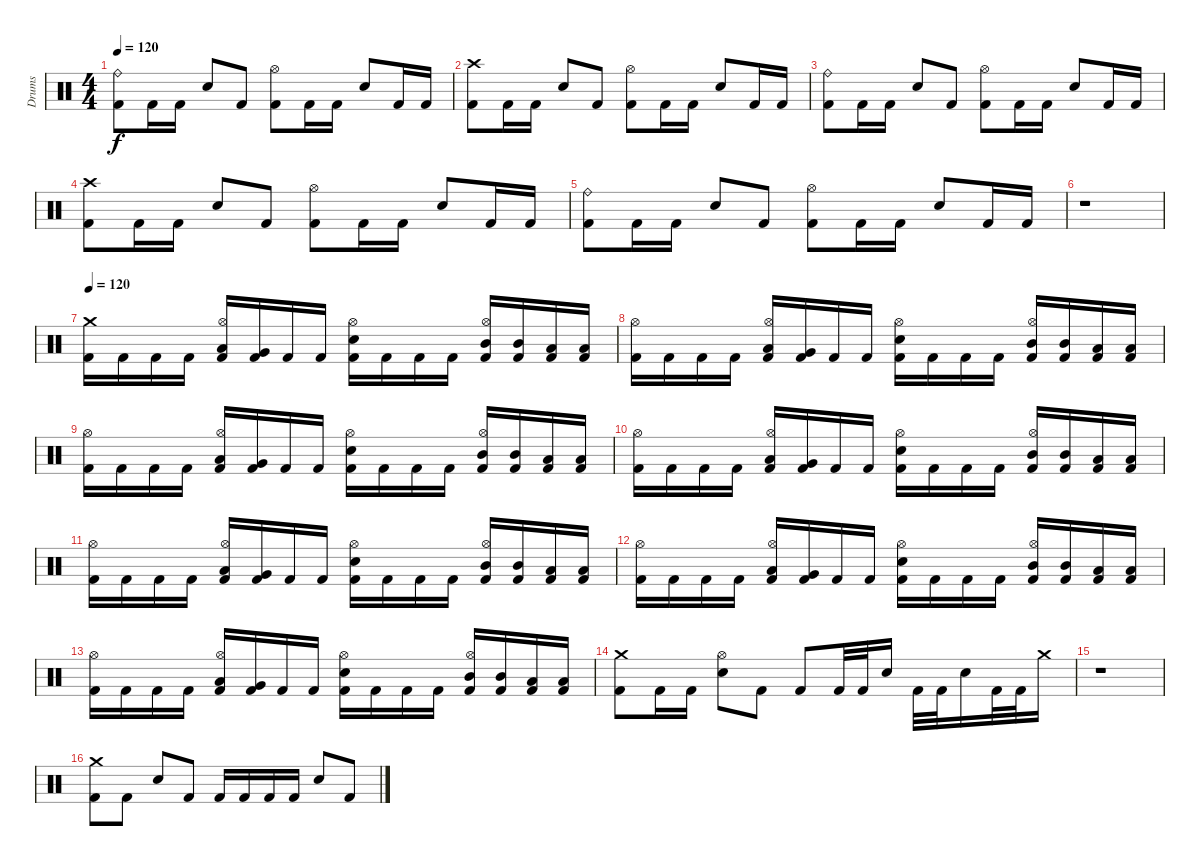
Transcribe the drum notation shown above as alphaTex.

\track ("Drums" "Drums") {instrument percussion}
\staff {score}
\articulation defaults
\ts (4 4)
\tempo 120
\clef neutral
\ks c
("Ride (bell)" "Kick (hit) 2").8{dy f} "Kick (hit) 2".16 "Kick (hit) 2".16 "Electric Snare (hit)".8 "Kick (hit) 2".8 ("Hi-Hat (open)" "Kick (hit) 2").8 "Kick (hit) 2".16 "Kick (hit) 2".16 "Electric Snare (hit)".8 "Kick (hit) 2".16 "Kick (hit) 2".16 |
("Crash high (hit)" "Kick (hit) 2").8 "Kick (hit) 2".16 "Kick (hit) 2".16 "Electric Snare (hit)".8 "Kick (hit) 2".8 ("Hi-Hat (open)" "Kick (hit) 2").8 "Kick (hit) 2".16 "Kick (hit) 2".16 "Electric Snare (hit)".8 "Kick (hit) 2".16 "Kick (hit) 2".16 |
("Ride (bell)" "Kick (hit) 2").8 "Kick (hit) 2".16 "Kick (hit) 2".16 "Electric Snare (hit)".8 "Kick (hit) 2".8 ("Hi-Hat (open)" "Kick (hit) 2").8 "Kick (hit) 2".16 "Kick (hit) 2".16 "Electric Snare (hit)".8 "Kick (hit) 2".16 "Kick (hit) 2".16 |
("Crash high (hit)" "Kick (hit) 2").8 "Kick (hit) 2".16 "Kick (hit) 2".16 "Electric Snare (hit)".8 "Kick (hit) 2".8 ("Hi-Hat (open)" "Kick (hit) 2").8 "Kick (hit) 2".16 "Kick (hit) 2".16 "Electric Snare (hit)".8 "Kick (hit) 2".16 "Kick (hit) 2".16 |
("Ride (bell)" "Kick (hit) 2").8 "Kick (hit) 2".16 "Kick (hit) 2".16 "Electric Snare (hit)".8 "Kick (hit) 2".8 ("Hi-Hat (open)" "Kick (hit) 2").8 "Kick (hit) 2".16 "Kick (hit) 2".16 "Electric Snare (hit)".8 "Kick (hit) 2".16 "Kick (hit) 2".16 |
r.1 |
\tempo 120
("Crash medium (hit)" "Kick (hit) 2").16 "Kick (hit) 2".16 "Kick (hit) 2".16 "Kick (hit) 2".16 ("Hi-Hat (open)" "Low Tom (hit)" "Kick (hit) 2").16 ("Very Low Tom (hit)" "Kick (hit) 2").16 "Kick (hit) 2".16 "Kick (hit) 2".16 ("Hi-Hat (open)" "Electric Snare (hit)" "Kick (hit) 2").16 "Kick (hit) 2".16 "Kick (hit) 2".16 "Kick (hit) 2".16 ("Hi-Hat (open)" "Mid Tom (hit)" "Kick (hit) 2").16 ("Mid Tom (hit)" "Kick (hit) 2").16 ("Low Tom (hit)" "Kick (hit) 2").16 ("Low Tom (hit)" "Kick (hit) 2").16 |
("Hi-Hat (open)" "Kick (hit) 2").16 "Kick (hit) 2".16 "Kick (hit) 2".16 "Kick (hit) 2".16 ("Hi-Hat (open)" "Low Tom (hit)" "Kick (hit) 2").16 ("Very Low Tom (hit)" "Kick (hit) 2").16 "Kick (hit) 2".16 "Kick (hit) 2".16 ("Hi-Hat (open)" "Electric Snare (hit)" "Kick (hit) 2").16 "Kick (hit) 2".16 "Kick (hit) 2".16 "Kick (hit) 2".16 ("Hi-Hat (open)" "Mid Tom (hit)" "Kick (hit) 2").16 ("Mid Tom (hit)" "Kick (hit) 2").16 ("Low Tom (hit)" "Kick (hit) 2").16 ("Low Tom (hit)" "Kick (hit) 2").16 |
("Hi-Hat (open)" "Kick (hit) 2").16 "Kick (hit) 2".16 "Kick (hit) 2".16 "Kick (hit) 2".16 ("Hi-Hat (open)" "Low Tom (hit)" "Kick (hit) 2").16 ("Very Low Tom (hit)" "Kick (hit) 2").16 "Kick (hit) 2".16 "Kick (hit) 2".16 ("Hi-Hat (open)" "Electric Snare (hit)" "Kick (hit) 2").16 "Kick (hit) 2".16 "Kick (hit) 2".16 "Kick (hit) 2".16 ("Hi-Hat (open)" "Mid Tom (hit)" "Kick (hit) 2").16 ("Mid Tom (hit)" "Kick (hit) 2").16 ("Low Tom (hit)" "Kick (hit) 2").16 ("Low Tom (hit)" "Kick (hit) 2").16 |
("Hi-Hat (open)" "Kick (hit) 2").16 "Kick (hit) 2".16 "Kick (hit) 2".16 "Kick (hit) 2".16 ("Hi-Hat (open)" "Low Tom (hit)" "Kick (hit) 2").16 ("Very Low Tom (hit)" "Kick (hit) 2").16 "Kick (hit) 2".16 "Kick (hit) 2".16 ("Hi-Hat (open)" "Electric Snare (hit)" "Kick (hit) 2").16 "Kick (hit) 2".16 "Kick (hit) 2".16 "Kick (hit) 2".16 ("Hi-Hat (open)" "Mid Tom (hit)" "Kick (hit) 2").16 ("Mid Tom (hit)" "Kick (hit) 2").16 ("Low Tom (hit)" "Kick (hit) 2").16 ("Low Tom (hit)" "Kick (hit) 2").16 |
("Hi-Hat (open)" "Kick (hit) 2").16 "Kick (hit) 2".16 "Kick (hit) 2".16 "Kick (hit) 2".16 ("Hi-Hat (open)" "Low Tom (hit)" "Kick (hit) 2").16 ("Very Low Tom (hit)" "Kick (hit) 2").16 "Kick (hit) 2".16 "Kick (hit) 2".16 ("Hi-Hat (open)" "Electric Snare (hit)" "Kick (hit) 2").16 "Kick (hit) 2".16 "Kick (hit) 2".16 "Kick (hit) 2".16 ("Hi-Hat (open)" "Mid Tom (hit)" "Kick (hit) 2").16 ("Mid Tom (hit)" "Kick (hit) 2").16 ("Low Tom (hit)" "Kick (hit) 2").16 ("Low Tom (hit)" "Kick (hit) 2").16 |
("Hi-Hat (open)" "Kick (hit) 2").16 "Kick (hit) 2".16 "Kick (hit) 2".16 "Kick (hit) 2".16 ("Hi-Hat (open)" "Low Tom (hit)" "Kick (hit) 2").16 ("Very Low Tom (hit)" "Kick (hit) 2").16 "Kick (hit) 2".16 "Kick (hit) 2".16 ("Hi-Hat (open)" "Electric Snare (hit)" "Kick (hit) 2").16 "Kick (hit) 2".16 "Kick (hit) 2".16 "Kick (hit) 2".16 ("Hi-Hat (open)" "Mid Tom (hit)" "Kick (hit) 2").16 ("Mid Tom (hit)" "Kick (hit) 2").16 ("Low Tom (hit)" "Kick (hit) 2").16 ("Low Tom (hit)" "Kick (hit) 2").16 |
("Hi-Hat (open)" "Kick (hit) 2").16 "Kick (hit) 2".16 "Kick (hit) 2".16 "Kick (hit) 2".16 ("Hi-Hat (open)" "Low Tom (hit)" "Kick (hit) 2").16 ("Very Low Tom (hit)" "Kick (hit) 2").16 "Kick (hit) 2".16 "Kick (hit) 2".16 ("Hi-Hat (open)" "Electric Snare (hit)" "Kick (hit) 2").16 "Kick (hit) 2".16 "Kick (hit) 2".16 "Kick (hit) 2".16 ("Hi-Hat (open)" "Mid Tom (hit)" "Kick (hit) 2").16 ("Mid Tom (hit)" "Kick (hit) 2").16 ("Low Tom (hit)" "Kick (hit) 2").16 ("Low Tom (hit)" "Kick (hit) 2").16 |
("Crash medium (hit)" "Kick (hit) 2").8 "Kick (hit) 2".16 "Kick (hit) 2".16 ("Hi-Hat (open)" "Electric Snare (hit)").8 "Kick (hit) 2".8 "Kick (hit) 2".8 "Kick (hit) 2".32 "Kick (hit) 2".32 "Electric Snare (hit)".16 "Kick (hit) 2".32 "Kick (hit) 2".32 "Electric Snare (hit)".16 "Kick (hit) 2".32 "Kick (hit) 2".32 "Crash medium (hit)".16 |
r.1 |
("Crash medium (hit)" "Kick (hit) 2").8 "Kick (hit) 2".8 "Electric Snare (hit)".8 "Kick (hit) 2".8 "Kick (hit) 2".16 "Kick (hit) 2".16 "Kick (hit) 2".16 "Kick (hit) 2".16 "Electric Snare (hit)".8 "Kick (hit) 2".8
